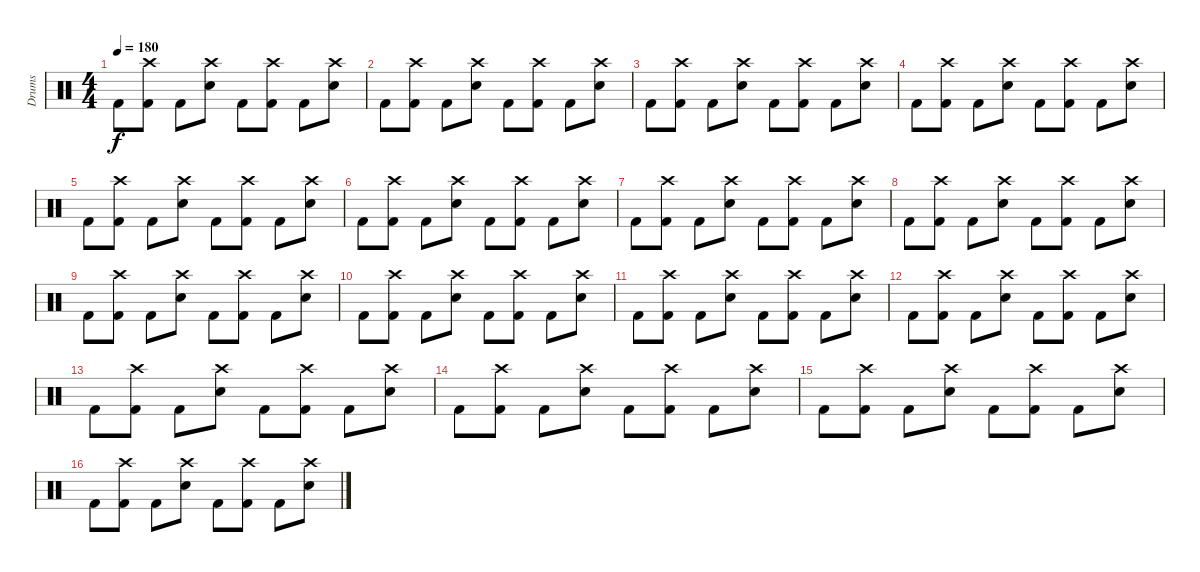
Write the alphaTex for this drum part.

\track ("Drums" "Drums") {instrument percussion}
\staff {score}
\articulation defaults
\ts (4 4)
\tempo 180
\clef neutral
\ks c "Kick (hit) 2".8{dy f}
("Crash high (hit)" "Kick (hit) 2").8 "Kick (hit) 2".8 ("Crash high (hit)" "Electric Snare (hit)").8 "Kick (hit) 2".8 ("Crash high (hit)" "Kick (hit) 2").8 "Kick (hit) 2".8 ("Crash high (hit)" "Electric Snare (hit)").8 |
"Kick (hit) 2".8 ("Crash high (hit)" "Kick (hit) 2").8 "Kick (hit) 2".8 ("Crash high (hit)" "Electric Snare (hit)").8 "Kick (hit) 2".8 ("Crash high (hit)" "Kick (hit) 2").8 "Kick (hit) 2".8 ("Crash high (hit)" "Electric Snare (hit)").8 |
"Kick (hit) 2".8 ("Crash high (hit)" "Kick (hit) 2").8 "Kick (hit) 2".8 ("Crash high (hit)" "Electric Snare (hit)").8 "Kick (hit) 2".8 ("Crash high (hit)" "Kick (hit) 2").8 "Kick (hit) 2".8 ("Crash high (hit)" "Electric Snare (hit)").8 |
"Kick (hit) 2".8 ("Crash high (hit)" "Kick (hit) 2").8 "Kick (hit) 2".8 ("Crash high (hit)" "Electric Snare (hit)").8 "Kick (hit) 2".8 ("Crash high (hit)" "Kick (hit) 2").8 "Kick (hit) 2".8 ("Crash high (hit)" "Electric Snare (hit)").8 |
"Kick (hit) 2".8 ("Crash high (hit)" "Kick (hit) 2").8 "Kick (hit) 2".8 ("Crash high (hit)" "Electric Snare (hit)").8 "Kick (hit) 2".8 ("Crash high (hit)" "Kick (hit) 2").8 "Kick (hit) 2".8 ("Crash high (hit)" "Electric Snare (hit)").8 |
"Kick (hit) 2".8 ("Crash high (hit)" "Kick (hit) 2").8 "Kick (hit) 2".8 ("Crash high (hit)" "Electric Snare (hit)").8 "Kick (hit) 2".8 ("Crash high (hit)" "Kick (hit) 2").8 "Kick (hit) 2".8 ("Crash high (hit)" "Electric Snare (hit)").8 |
"Kick (hit) 2".8 ("Crash high (hit)" "Kick (hit) 2").8 "Kick (hit) 2".8 ("Crash high (hit)" "Electric Snare (hit)").8 "Kick (hit) 2".8 ("Crash high (hit)" "Kick (hit) 2").8 "Kick (hit) 2".8 ("Crash high (hit)" "Electric Snare (hit)").8 |
"Kick (hit) 2".8 ("Crash high (hit)" "Kick (hit) 2").8 "Kick (hit) 2".8 ("Crash high (hit)" "Electric Snare (hit)").8 "Kick (hit) 2".8 ("Crash high (hit)" "Kick (hit) 2").8 "Kick (hit) 2".8 ("Crash high (hit)" "Electric Snare (hit)").8 |
"Kick (hit) 2".8 ("Crash high (hit)" "Kick (hit) 2").8 "Kick (hit) 2".8 ("Crash high (hit)" "Electric Snare (hit)").8 "Kick (hit) 2".8 ("Crash high (hit)" "Kick (hit) 2").8 "Kick (hit) 2".8 ("Crash high (hit)" "Electric Snare (hit)").8 |
"Kick (hit) 2".8 ("Crash high (hit)" "Kick (hit) 2").8 "Kick (hit) 2".8 ("Crash high (hit)" "Electric Snare (hit)").8 "Kick (hit) 2".8 ("Crash high (hit)" "Kick (hit) 2").8 "Kick (hit) 2".8 ("Crash high (hit)" "Electric Snare (hit)").8 |
"Kick (hit) 2".8 ("Crash high (hit)" "Kick (hit) 2").8 "Kick (hit) 2".8 ("Crash high (hit)" "Electric Snare (hit)").8 "Kick (hit) 2".8 ("Crash high (hit)" "Kick (hit) 2").8 "Kick (hit) 2".8 ("Crash high (hit)" "Electric Snare (hit)").8 |
"Kick (hit) 2".8 ("Crash high (hit)" "Kick (hit) 2").8 "Kick (hit) 2".8 ("Crash high (hit)" "Electric Snare (hit)").8 "Kick (hit) 2".8 ("Crash high (hit)" "Kick (hit) 2").8 "Kick (hit) 2".8 ("Crash high (hit)" "Electric Snare (hit)").8 |
"Kick (hit) 2".8 ("Crash high (hit)" "Kick (hit) 2").8 "Kick (hit) 2".8 ("Crash high (hit)" "Electric Snare (hit)").8 "Kick (hit) 2".8 ("Crash high (hit)" "Kick (hit) 2").8 "Kick (hit) 2".8 ("Crash high (hit)" "Electric Snare (hit)").8 |
"Kick (hit) 2".8 ("Crash high (hit)" "Kick (hit) 2").8 "Kick (hit) 2".8 ("Crash high (hit)" "Electric Snare (hit)").8 "Kick (hit) 2".8 ("Crash high (hit)" "Kick (hit) 2").8 "Kick (hit) 2".8 ("Crash high (hit)" "Electric Snare (hit)").8 |
"Kick (hit) 2".8 ("Crash high (hit)" "Kick (hit) 2").8 "Kick (hit) 2".8 ("Crash high (hit)" "Electric Snare (hit)").8 "Kick (hit) 2".8 ("Crash high (hit)" "Kick (hit) 2").8 "Kick (hit) 2".8 ("Crash high (hit)" "Electric Snare (hit)").8 |
"Kick (hit) 2".8 ("Crash high (hit)" "Kick (hit) 2").8 "Kick (hit) 2".8 ("Crash high (hit)" "Electric Snare (hit)").8 "Kick (hit) 2".8 ("Crash high (hit)" "Kick (hit) 2").8 "Kick (hit) 2".8 ("Crash high (hit)" "Electric Snare (hit)").8
